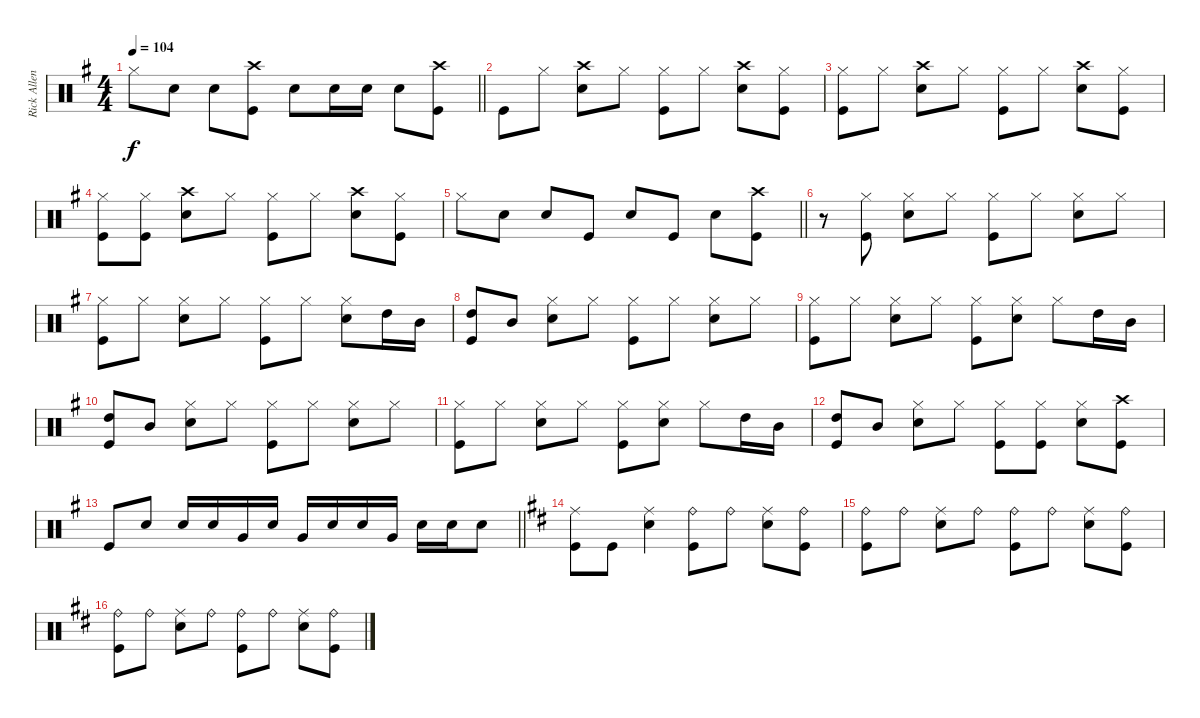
\track ("Rick Allen" "Rick Allen") {instrument percussion}
\staff {score}
\articulation defaults
\ts (4 4)
\tempo 104
\clef neutral
\barLineRight lightlight
\ks eminor "Hi-Hat (closed)".8{dy f} "Snare (hit) 2".8 "Snare (hit) 2".8
("Crash high (hit)" "Kick (hit)").8 "Snare (hit) 2".8 "Snare (hit) 2".16 "Snare (hit) 2".16 "Snare (hit) 2".8 ("Crash high (hit)" "Kick (hit)").8 |
"Kick (hit)".8 "Hi-Hat (closed)".8 ("Crash high (hit)" "Snare (hit) 2").8 "Hi-Hat (closed)".8 ("Hi-Hat (closed)" "Kick (hit)").8 "Hi-Hat (closed)".8 ("Crash high (hit)" "Snare (hit) 2").8 ("Hi-Hat (closed)" "Kick (hit)").8 |
("Hi-Hat (closed)" "Kick (hit)").8 "Hi-Hat (closed)".8 ("Crash high (hit)" "Snare (hit) 2").8 "Hi-Hat (closed)".8 ("Hi-Hat (closed)" "Kick (hit)").8 "Hi-Hat (closed)".8 ("Crash high (hit)" "Snare (hit) 2").8 ("Hi-Hat (closed)" "Kick (hit)").8 |
("Hi-Hat (closed)" "Kick (hit)").8 ("Hi-Hat (closed)" "Kick (hit)").8 ("Crash high (hit)" "Snare (hit) 2").8 "Hi-Hat (closed)".8 ("Hi-Hat (closed)" "Kick (hit)").8 "Hi-Hat (closed)".8 ("Crash high (hit)" "Snare (hit) 2").8 ("Hi-Hat (closed)" "Kick (hit)").8 |
\barLineRight lightlight "Hi-Hat (closed)".8 "Snare (hit) 2".8 "Snare (hit) 2".8 "Kick (hit)".8 "Snare (hit) 2".8 "Kick (hit)".8 "Snare (hit) 2".8
("Crash high (hit)" "Kick (hit)").8 |
r.8 ("Hi-Hat (closed)" "Kick (hit)").8 ("Hi-Hat (closed)" "Snare (hit) 2").8 "Hi-Hat (closed)".8 ("Hi-Hat (closed)" "Kick (hit)").8 "Hi-Hat (closed)".8 ("Hi-Hat (closed)" "Snare (hit) 2").8 "Hi-Hat (closed)".8 |
("Hi-Hat (closed)" "Kick (hit)").8 "Hi-Hat (closed)".8 ("Hi-Hat (closed)" "Snare (hit) 2").8 "Hi-Hat (closed)".8 ("Hi-Hat (closed)" "Kick (hit)").8 "Hi-Hat (closed)".8 ("Hi-Hat (closed)" "Snare (hit) 2").8 "High Tom (hit)".16 "Mid Tom (hit)".16 |
("High Tom (hit)" "Kick (hit)").8 "Mid Tom (hit)".8 ("Hi-Hat (closed)" "Snare (hit) 2").8 "Hi-Hat (closed)".8 ("Hi-Hat (closed)" "Kick (hit)").8 "Hi-Hat (closed)".8 ("Hi-Hat (closed)" "Snare (hit) 2").8 "Hi-Hat (closed)".8 |
("Hi-Hat (closed)" "Kick (hit)").8 "Hi-Hat (closed)".8 ("Hi-Hat (closed)" "Snare (hit) 2").8 "Hi-Hat (closed)".8 ("Hi-Hat (closed)" "Kick (hit)").8 ("Hi-Hat (closed)" "Snare (hit) 2").8 "Hi-Hat (closed)".8 "High Tom (hit)".16 "Mid Tom (hit)".16 |
("High Tom (hit)" "Kick (hit)").8 "Mid Tom (hit)".8 ("Hi-Hat (closed)" "Snare (hit) 2").8 "Hi-Hat (closed)".8 ("Hi-Hat (closed)" "Kick (hit)").8 "Hi-Hat (closed)".8 ("Hi-Hat (closed)" "Snare (hit) 2").8 "Hi-Hat (closed)".8 |
("Hi-Hat (closed)" "Kick (hit)").8 "Hi-Hat (closed)".8 ("Hi-Hat (closed)" "Snare (hit) 2").8 "Hi-Hat (closed)".8 ("Hi-Hat (closed)" "Kick (hit)").8 ("Hi-Hat (closed)" "Snare (hit) 2").8 "Hi-Hat (closed)".8 "High Tom (hit)".16 "Mid Tom (hit)".16 |
("High Tom (hit)" "Kick (hit)").8 "Mid Tom (hit)".8 ("Hi-Hat (closed)" "Snare (hit) 2").8 "Hi-Hat (closed)".8 ("Hi-Hat (closed)" "Kick (hit)").8 ("Hi-Hat (closed)" "Kick (hit)").8 ("Hi-Hat (closed)" "Snare (hit) 2").8 ("Crash high (hit)" "Kick (hit)").8 |
\barLineRight lightlight "Kick (hit)".8 "Snare (hit) 2".8 "Snare (hit) 2".16 "Snare (hit) 2".16 "Very Low Tom (hit)".16 "Snare (hit) 2".16 "Very Low Tom (hit)".16 "Snare (hit) 2".16 "Snare (hit) 2".16 "Very Low Tom (hit)".16 "Snare (hit) 2".16 "Snare (hit) 2".16 "Snare (hit) 2".8
|
\ks bminor
("Ride (middle)" "Kick (hit)").8 "Kick (hit)".8 ("Ride (middle)" "Snare (hit) 2").4 ("Ride (bell)" "Kick (hit)").8 "Ride (bell)".8 ("Ride (middle)" "Snare (hit) 2").8 ("Ride (bell)" "Kick (hit)").8 |
("Ride (bell)" "Kick (hit)").8 "Ride (bell)".8 ("Ride (middle)" "Snare (hit) 2").8 "Ride (bell)".8 ("Ride (bell)" "Kick (hit)").8 "Ride (bell)".8 ("Ride (middle)" "Snare (hit) 2").8 ("Ride (bell)" "Kick (hit)").8 |
("Ride (bell)" "Kick (hit)").8 "Ride (bell)".8 ("Ride (middle)" "Snare (hit) 2").8 "Ride (bell)".8 ("Ride (bell)" "Kick (hit)").8 "Ride (bell)".8 ("Ride (middle)" "Snare (hit) 2").8 ("Ride (bell)" "Kick (hit)").8
